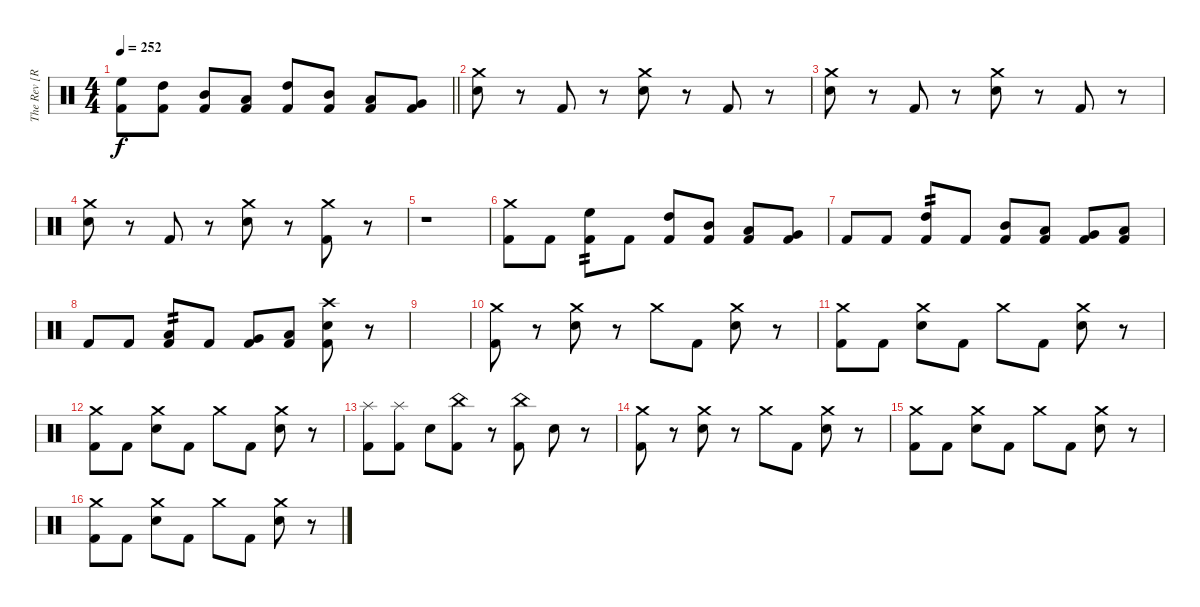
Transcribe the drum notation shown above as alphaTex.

\track ("The Rev [R.I.P]" "The Rev [R") {instrument percussion}
\staff {score}
\articulation defaults
\ts (4 4)
\tempo 252
\clef neutral
\barLineRight lightlight
\ks c
("High Floor Tom (hit)" "Kick (hit) 2").8{dy f} ("High Tom (hit)" "Kick (hit) 2").8 ("Mid Tom (hit)" "Kick (hit) 2").8 ("Low Tom (hit)" "Kick (hit) 2").8 ("High Tom (hit)" "Kick (hit) 2").8 ("Mid Tom (hit)" "Kick (hit) 2").8 ("Low Tom (hit)" "Kick (hit) 2").8 ("Very Low Tom (hit)" "Kick (hit) 2").8 |
("Crash medium (hit)" "Electric Snare (hit)").8 r.8 "Kick (hit) 2".8 r.8 ("Crash medium (hit)" "Electric Snare (hit)").8 r.8 "Kick (hit) 2".8 r.8 |
("Crash medium (hit)" "Electric Snare (hit)").8 r.8 "Kick (hit) 2".8 r.8 ("Crash medium (hit)" "Electric Snare (hit)").8 r.8 "Kick (hit) 2".8 r.8 |
("Crash medium (hit)" "Electric Snare (hit)").8 r.8 "Kick (hit) 2".8 r.8 ("Crash medium (hit)" "Electric Snare (hit)").8 r.8 ("Crash medium (hit)" "Kick (hit) 2").8 r.8 |
r.1 |
("Crash medium (hit)" "Kick (hit) 2").8 "Kick (hit) 2".8 ("High Floor Tom (hit)" "Kick (hit) 2").8{tp 2} "Kick (hit) 2".8 ("High Tom (hit)" "Kick (hit) 2").8 ("Mid Tom (hit)" "Kick (hit) 2").8 ("Low Tom (hit)" "Kick (hit) 2").8 ("Very Low Tom (hit)" "Kick (hit) 2").8 |
"Kick (hit) 2".8 "Kick (hit) 2".8 ("High Tom (hit)" "Kick (hit) 2").8{tp 2} "Kick (hit) 2".8 ("Mid Tom (hit)" "Kick (hit) 2").8 ("Low Tom (hit)" "Kick (hit) 2").8 ("Very Low Tom (hit)" "Kick (hit) 2").8 ("Low Floor Tom (hit)" "Kick (hit) 2").8 |
"Kick (hit) 2".8 "Kick (hit) 2".8 ("Low Tom (hit)" "Kick (hit) 2").8{tp 2} "Kick (hit) 2".8 ("Very Low Tom (hit)" "Kick (hit) 2").8 ("Low Floor Tom (hit)" "Kick (hit) 2").8 ("Crash high (hit)" "Electric Snare (hit)" "Kick (hit) 2").8 r.8 |
|
("Crash medium (hit)" "Kick (hit) 2").8 r.8 ("Crash medium (hit)" "Electric Snare (hit)").8 r.8 "Crash medium (hit)".8 "Kick (hit) 2".8 ("Crash medium (hit)" "Electric Snare (hit)").8 r.8 |
("Crash medium (hit)" "Kick (hit) 2").8 "Kick (hit) 2".8 ("Crash medium (hit)" "Electric Snare (hit)").8 "Kick (hit) 2".8 "Crash medium (hit)".8 "Kick (hit) 2".8 ("Crash medium (hit)" "Electric Snare (hit)").8 r.8 |
("Crash medium (hit)" "Kick (hit) 2").8 "Kick (hit) 2".8 ("Crash medium (hit)" "Electric Snare (hit)").8 "Kick (hit) 2".8 "Crash medium (hit)".8 "Kick (hit) 2".8 ("Crash medium (hit)" "Electric Snare (hit)").8 r.8 |
("Splash (hit)" "Kick (hit) 2").8 ("Splash (hit)" "Kick (hit) 2").8 "Electric Snare (hit)".8 ("China (hit)" "Kick (hit) 2").8 r.8 ("China (hit)" "Kick (hit) 2").8 "Electric Snare (hit)".8 r.8 |
("Crash medium (hit)" "Kick (hit) 2").8 r.8 ("Crash medium (hit)" "Electric Snare (hit)").8 r.8 "Crash medium (hit)".8 "Kick (hit) 2".8 ("Crash medium (hit)" "Electric Snare (hit)").8 r.8 |
("Crash medium (hit)" "Kick (hit) 2").8 "Kick (hit) 2".8 ("Crash medium (hit)" "Electric Snare (hit)").8 "Kick (hit) 2".8 "Crash medium (hit)".8 "Kick (hit) 2".8 ("Crash medium (hit)" "Electric Snare (hit)").8 r.8 |
("Crash medium (hit)" "Kick (hit) 2").8 "Kick (hit) 2".8 ("Crash medium (hit)" "Electric Snare (hit)").8 "Kick (hit) 2".8 "Crash medium (hit)".8 "Kick (hit) 2".8 ("Crash medium (hit)" "Electric Snare (hit)").8 r.8
